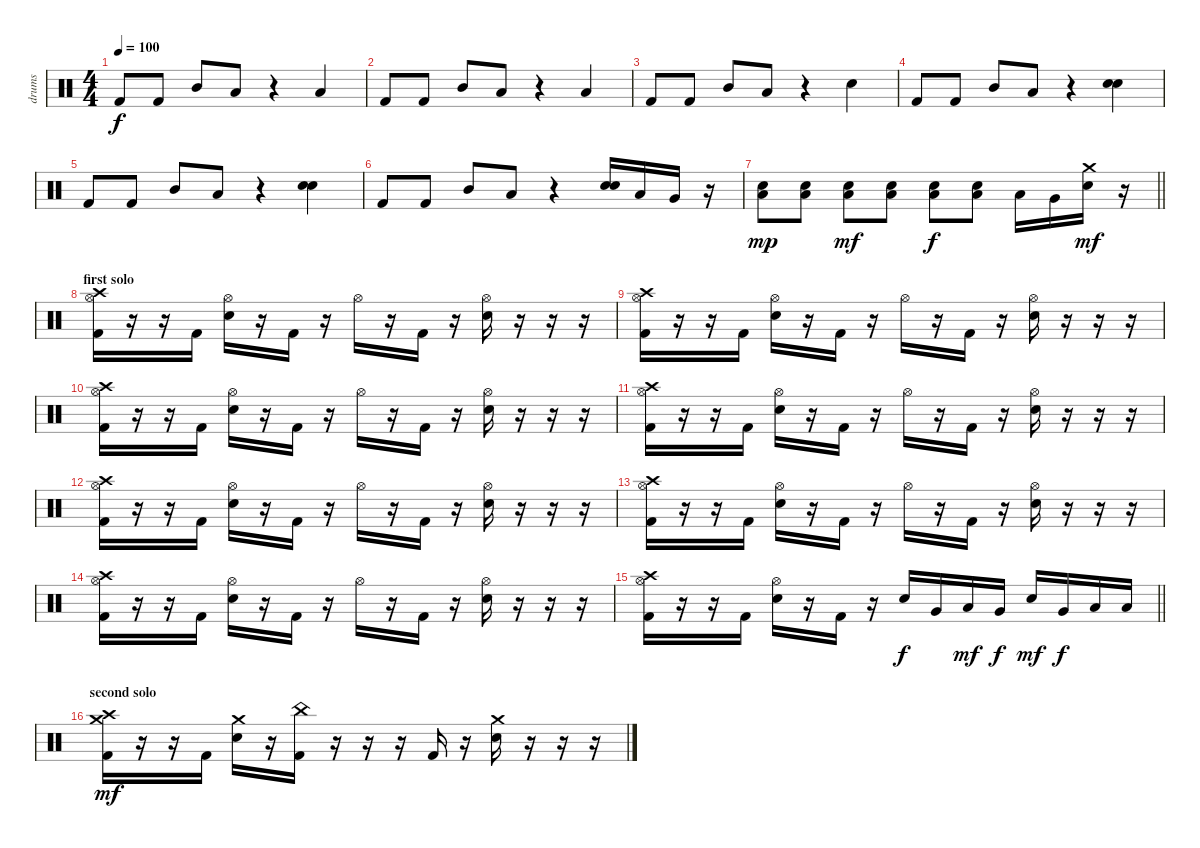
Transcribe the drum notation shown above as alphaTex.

\track ("drums" "drums") {instrument percussion}
\staff {score}
\articulation defaults
\ts (4 4)
\tempo 100
\clef neutral
\ks c "Kick (hit) 2".8{dy f} "Kick (hit) 2".8 "Mid Tom (hit)".8 "Low Tom (hit)".8
r.4 "Low Tom (hit)".4 |
"Kick (hit) 2".8 "Kick (hit) 2".8 "Mid Tom (hit)".8 "Low Tom (hit)".8 r.4 "Low Tom (hit)".4 |
"Kick (hit) 2".8 "Kick (hit) 2".8 "Mid Tom (hit)".8 "Low Tom (hit)".8 r.4 "Electric Snare (hit)".4 |
"Kick (hit) 2".8 "Kick (hit) 2".8 "Mid Tom (hit)".8 "Low Tom (hit)".8 r.4 ("Electric Snare (hit)" "Electric Snare (hit)").4 |
"Kick (hit) 2".8 "Kick (hit) 2".8 "Mid Tom (hit)".8 "Low Tom (hit)".8 r.4 ("Electric Snare (hit)" "Electric Snare (hit)").4 |
"Kick (hit) 2".8 "Kick (hit) 2".8 "Mid Tom (hit)".8 "Low Tom (hit)".8 r.4 ("Electric Snare (hit)" "Electric Snare (hit)").16 "Low Tom (hit)".16 "Very Low Tom (hit)".16 r.16 |
\barLineRight lightlight
("Electric Snare (hit)" "Low Tom (hit)").8{dy mp} ("Electric Snare (hit)" "Low Tom (hit)").8 ("Electric Snare (hit)" "Low Tom (hit)").8{dy mf} ("Electric Snare (hit)" "Low Tom (hit)").8 ("Electric Snare (hit)" "Low Tom (hit)").8{dy f} ("Electric Snare (hit)" "Low Tom (hit)").8 "Low Tom (hit)".16 "Very Low Tom (hit)".16 ("Crash medium (hit)" "Electric Snare (hit)").16{dy mf} r.16 |
\section ("" "first solo")
("Crash high (hit)" "Hi-Hat (open)" "Kick (hit) 2").16 r.16 r.16 "Kick (hit) 2".16 ("Hi-Hat (open)" "Electric Snare (hit)").16 r.16 "Kick (hit) 2".16 r.16 "Hi-Hat (open)".16 r.16 "Kick (hit) 2".16 r.16 ("Hi-Hat (open)" "Electric Snare (hit)").16 r.16 r.16 r.16 |
("Crash high (hit)" "Hi-Hat (open)" "Kick (hit) 2").16 r.16 r.16 "Kick (hit) 2".16 ("Hi-Hat (open)" "Electric Snare (hit)").16 r.16 "Kick (hit) 2".16 r.16 "Hi-Hat (open)".16 r.16 "Kick (hit) 2".16 r.16 ("Hi-Hat (open)" "Electric Snare (hit)").16 r.16 r.16 r.16 |
("Crash high (hit)" "Hi-Hat (open)" "Kick (hit) 2").16 r.16 r.16 "Kick (hit) 2".16 ("Hi-Hat (open)" "Electric Snare (hit)").16 r.16 "Kick (hit) 2".16 r.16 "Hi-Hat (open)".16 r.16 "Kick (hit) 2".16 r.16 ("Hi-Hat (open)" "Electric Snare (hit)").16 r.16 r.16 r.16 |
("Crash high (hit)" "Hi-Hat (open)" "Kick (hit) 2").16 r.16 r.16 "Kick (hit) 2".16 ("Hi-Hat (open)" "Electric Snare (hit)").16 r.16 "Kick (hit) 2".16 r.16 "Hi-Hat (open)".16 r.16 "Kick (hit) 2".16 r.16 ("Hi-Hat (open)" "Electric Snare (hit)").16 r.16 r.16 r.16 |
("Crash high (hit)" "Hi-Hat (open)" "Kick (hit) 2").16 r.16 r.16 "Kick (hit) 2".16 ("Hi-Hat (open)" "Electric Snare (hit)").16 r.16 "Kick (hit) 2".16 r.16 "Hi-Hat (open)".16 r.16 "Kick (hit) 2".16 r.16 ("Hi-Hat (open)" "Electric Snare (hit)").16 r.16 r.16 r.16 |
("Crash high (hit)" "Hi-Hat (open)" "Kick (hit) 2").16 r.16 r.16 "Kick (hit) 2".16 ("Hi-Hat (open)" "Electric Snare (hit)").16 r.16 "Kick (hit) 2".16 r.16 "Hi-Hat (open)".16 r.16 "Kick (hit) 2".16 r.16 ("Hi-Hat (open)" "Electric Snare (hit)").16 r.16 r.16 r.16 |
("Crash high (hit)" "Hi-Hat (open)" "Kick (hit) 2").16 r.16 r.16 "Kick (hit) 2".16 ("Hi-Hat (open)" "Electric Snare (hit)").16 r.16 "Kick (hit) 2".16 r.16 "Hi-Hat (open)".16 r.16 "Kick (hit) 2".16 r.16 ("Hi-Hat (open)" "Electric Snare (hit)").16 r.16 r.16 r.16 |
\barLineRight lightlight
("Crash high (hit)" "Hi-Hat (open)" "Kick (hit) 2").16 r.16 r.16 "Kick (hit) 2".16 ("Hi-Hat (open)" "Electric Snare (hit)").16 r.16 "Kick (hit) 2".16 r.16 "Electric Snare (hit)".16{dy f} "Very Low Tom (hit)".16 "Low Floor Tom (hit)".16{dy mf} "Very Low Tom (hit)".16{dy f} "Electric Snare (hit)".16{dy mf} "Very Low Tom (hit)".16{dy f} "Low Tom (hit)".16 "Low Floor Tom (hit)".16 |
\section ("" "second solo")
("Crash high (hit)" "Crash medium (hit)" "Kick (hit) 2").16{dy mf} r.16 r.16 "Kick (hit) 2".16 ("Crash medium (hit)" "Electric Snare (hit)").16 r.16 ("China (hit)" "Kick (hit) 2").16 r.16 r.16 r.16 "Kick (hit) 2".16 r.16 ("Crash medium (hit)" "Electric Snare (hit)").16 r.16 r.16 r.16
